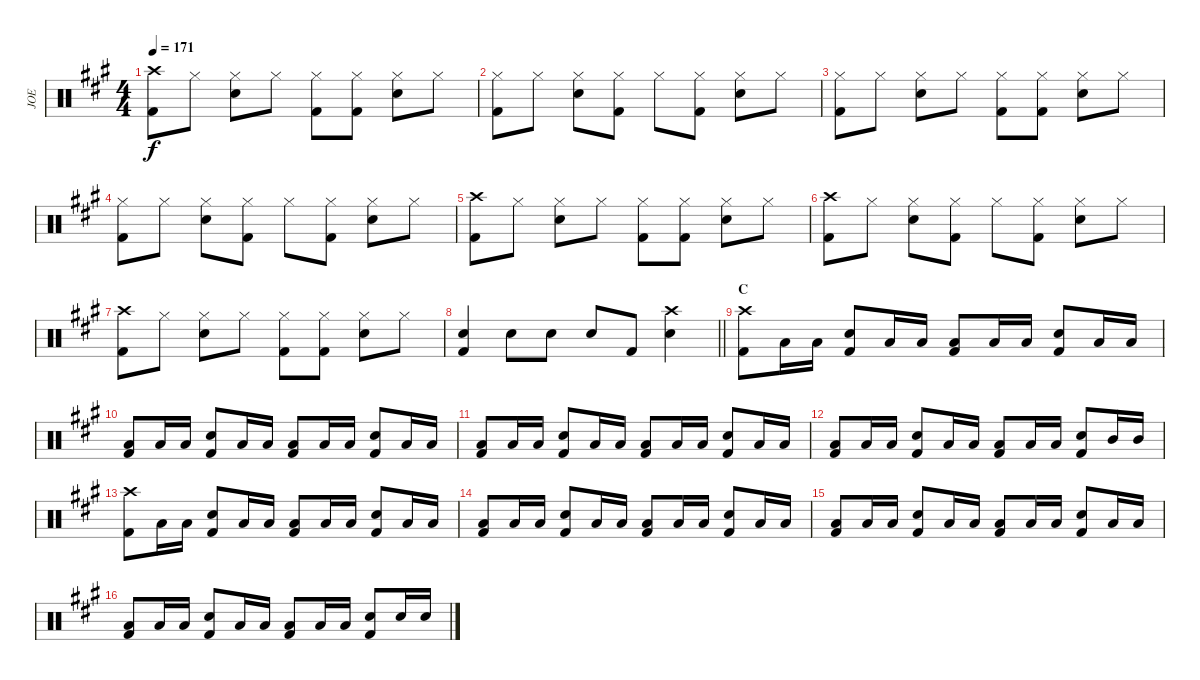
\track ("JOE" "JOE") {instrument percussion}
\staff {score}
\articulation defaults
\ts (4 4)
\tempo 171
\clef neutral
\ks a
("Crash high (hit)" "Kick (hit) 2").8{dy f} "Hi-Hat (closed)".8 ("Hi-Hat (closed)" "Snare (hit) 2").8 "Hi-Hat (closed)".8 ("Hi-Hat (closed)" "Kick (hit) 2").8 ("Hi-Hat (closed)" "Kick (hit) 2").8 ("Hi-Hat (closed)" "Snare (hit) 2").8 "Hi-Hat (closed)".8 |
("Hi-Hat (closed)" "Kick (hit) 2").8 "Hi-Hat (closed)".8 ("Hi-Hat (closed)" "Snare (hit) 2").8 ("Hi-Hat (closed)" "Kick (hit) 2").8 "Hi-Hat (closed)".8 ("Hi-Hat (closed)" "Kick (hit) 2").8 ("Hi-Hat (closed)" "Snare (hit) 2").8 "Hi-Hat (closed)".8 |
("Hi-Hat (closed)" "Kick (hit) 2").8 "Hi-Hat (closed)".8 ("Hi-Hat (closed)" "Snare (hit) 2").8 "Hi-Hat (closed)".8 ("Hi-Hat (closed)" "Kick (hit) 2").8 ("Hi-Hat (closed)" "Kick (hit) 2").8 ("Hi-Hat (closed)" "Snare (hit) 2").8 "Hi-Hat (closed)".8 |
("Hi-Hat (closed)" "Kick (hit) 2").8 "Hi-Hat (closed)".8 ("Hi-Hat (closed)" "Snare (hit) 2").8 ("Hi-Hat (closed)" "Kick (hit) 2").8 "Hi-Hat (closed)".8 ("Hi-Hat (closed)" "Kick (hit) 2").8 ("Hi-Hat (closed)" "Snare (hit) 2").8 "Hi-Hat (closed)".8 |
("Crash high (hit)" "Kick (hit) 2").8 "Hi-Hat (closed)".8 ("Hi-Hat (closed)" "Snare (hit) 2").8 "Hi-Hat (closed)".8 ("Hi-Hat (closed)" "Kick (hit) 2").8 ("Hi-Hat (closed)" "Kick (hit) 2").8 ("Hi-Hat (closed)" "Snare (hit) 2").8 "Hi-Hat (closed)".8 |
("Crash high (hit)" "Kick (hit) 2").8 "Hi-Hat (closed)".8 ("Hi-Hat (closed)" "Snare (hit) 2").8 ("Hi-Hat (closed)" "Kick (hit) 2").8 "Hi-Hat (closed)".8 ("Hi-Hat (closed)" "Kick (hit) 2").8 ("Hi-Hat (closed)" "Snare (hit) 2").8 "Hi-Hat (closed)".8 |
("Crash high (hit)" "Kick (hit) 2").8 "Hi-Hat (closed)".8 ("Hi-Hat (closed)" "Snare (hit) 2").8 "Hi-Hat (closed)".8 ("Hi-Hat (closed)" "Kick (hit) 2").8 ("Hi-Hat (closed)" "Kick (hit) 2").8 ("Hi-Hat (closed)" "Snare (hit) 2").8 "Hi-Hat (closed)".8 |
\barLineRight lightlight
("Snare (hit) 2" "Kick (hit) 2").4 "Snare (hit) 2".8 "Snare (hit) 2".8 "Snare (hit) 2".8 "Kick (hit) 2".8 ("Crash high (hit)" "Snare (hit) 2").4 |
\section ("" "C")
("Crash high (hit)" "Kick (hit) 2").8 "Low Floor Tom (hit)".16 "Low Floor Tom (hit)".16 ("Snare (hit) 2" "Kick (hit) 2").8 "Low Floor Tom (hit)".16 "Low Floor Tom (hit)".16 ("Low Floor Tom (hit)" "Kick (hit) 2").8 "Low Floor Tom (hit)".16 "Low Floor Tom (hit)".16 ("Snare (hit) 2" "Kick (hit) 2").8 "Low Floor Tom (hit)".16 "Low Floor Tom (hit)".16 |
("Low Floor Tom (hit)" "Kick (hit) 2").8 "Low Floor Tom (hit)".16 "Low Floor Tom (hit)".16 ("Snare (hit) 2" "Kick (hit) 2").8 "Low Floor Tom (hit)".16 "Low Floor Tom (hit)".16 ("Low Floor Tom (hit)" "Kick (hit) 2").8 "Low Floor Tom (hit)".16 "Low Floor Tom (hit)".16 ("Snare (hit) 2" "Kick (hit) 2").8 "Low Floor Tom (hit)".16 "Low Floor Tom (hit)".16 |
("Low Floor Tom (hit)" "Kick (hit) 2").8 "Low Floor Tom (hit)".16 "Low Floor Tom (hit)".16 ("Snare (hit) 2" "Kick (hit) 2").8 "Low Floor Tom (hit)".16 "Low Floor Tom (hit)".16 ("Low Floor Tom (hit)" "Kick (hit) 2").8 "Low Floor Tom (hit)".16 "Low Floor Tom (hit)".16 ("Snare (hit) 2" "Kick (hit) 2").8 "Low Floor Tom (hit)".16 "Low Floor Tom (hit)".16 |
("Low Floor Tom (hit)" "Kick (hit) 2").8 "Low Floor Tom (hit)".16 "Low Floor Tom (hit)".16 ("Snare (hit) 2" "Kick (hit) 2").8 "Low Floor Tom (hit)".16 "Low Floor Tom (hit)".16 ("Low Floor Tom (hit)" "Kick (hit) 2").8 "Low Floor Tom (hit)".16 "Low Floor Tom (hit)".16 ("Snare (hit) 2" "Kick (hit) 2").8 "Mid Tom (hit)".16 "Mid Tom (hit)".16 |
("Crash high (hit)" "Kick (hit) 2").8 "Low Floor Tom (hit)".16 "Low Floor Tom (hit)".16 ("Snare (hit) 2" "Kick (hit) 2").8 "Low Floor Tom (hit)".16 "Low Floor Tom (hit)".16 ("Low Floor Tom (hit)" "Kick (hit) 2").8 "Low Floor Tom (hit)".16 "Low Floor Tom (hit)".16 ("Snare (hit) 2" "Kick (hit) 2").8 "Low Floor Tom (hit)".16 "Low Floor Tom (hit)".16 |
("Low Floor Tom (hit)" "Kick (hit) 2").8 "Low Floor Tom (hit)".16 "Low Floor Tom (hit)".16 ("Snare (hit) 2" "Kick (hit) 2").8 "Low Floor Tom (hit)".16 "Low Floor Tom (hit)".16 ("Low Floor Tom (hit)" "Kick (hit) 2").8 "Low Floor Tom (hit)".16 "Low Floor Tom (hit)".16 ("Snare (hit) 2" "Kick (hit) 2").8 "Low Floor Tom (hit)".16 "Low Floor Tom (hit)".16 |
("Low Floor Tom (hit)" "Kick (hit) 2").8 "Low Floor Tom (hit)".16 "Low Floor Tom (hit)".16 ("Snare (hit) 2" "Kick (hit) 2").8 "Low Floor Tom (hit)".16 "Low Floor Tom (hit)".16 ("Low Floor Tom (hit)" "Kick (hit) 2").8 "Low Floor Tom (hit)".16 "Low Floor Tom (hit)".16 ("Snare (hit) 2" "Kick (hit) 2").8 "Low Floor Tom (hit)".16 "Low Floor Tom (hit)".16 |
("Low Floor Tom (hit)" "Kick (hit) 2").8 "Low Floor Tom (hit)".16 "Low Floor Tom (hit)".16 ("Snare (hit) 2" "Kick (hit) 2").8 "Low Floor Tom (hit)".16 "Low Floor Tom (hit)".16 ("Low Floor Tom (hit)" "Kick (hit) 2").8 "Low Floor Tom (hit)".16 "Low Floor Tom (hit)".16 ("Snare (hit) 2" "Kick (hit) 2").8 "Snare (hit) 2".16 "Snare (hit) 2".16
